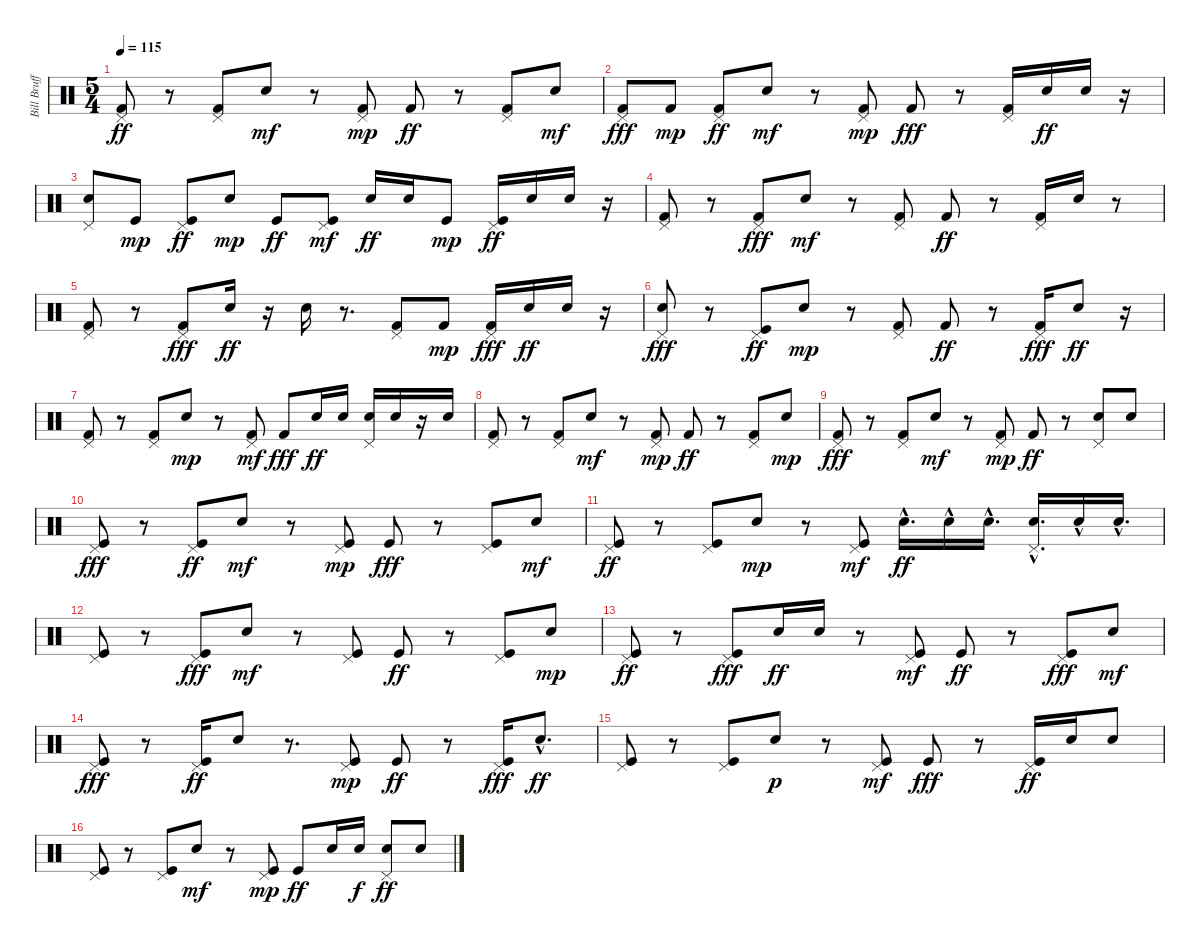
\track ("Bill Brufford Drums" "Bill Bruff") {instrument percussion}
\staff {score}
\articulation defaults
\ts (5 4)
\tempo 115
\clef neutral
\ks c
("Pedal Hi-Hat (hit)" "Kick (hit) 2").8{dy ff} r.8 ("Pedal Hi-Hat (hit)" "Kick (hit) 2").8 "Electric Snare (hit)".8{dy mf} r.8 ("Pedal Hi-Hat (hit)" "Kick (hit) 2").8{dy mp} "Kick (hit) 2".8{dy ff} r.8 ("Pedal Hi-Hat (hit)" "Kick (hit) 2").8 "Electric Snare (hit)".8{dy mf} |
("Pedal Hi-Hat (hit)" "Kick (hit) 2").8{dy fff} "Kick (hit) 2".8{dy mp} ("Pedal Hi-Hat (hit)" "Kick (hit) 2").8{dy ff} "Electric Snare (hit)".8{dy mf} r.8 ("Pedal Hi-Hat (hit)" "Kick (hit) 2").8{dy mp} "Kick (hit) 2".8{dy fff} r.8 ("Pedal Hi-Hat (hit)" "Kick (hit) 2").16 "Electric Snare (hit)".16{dy ff} "Electric Snare (hit)".16 r.16 |
("Pedal Hi-Hat (hit)" "Electric Snare (hit)").8 "Kick (hit)".8{dy mp} ("Pedal Hi-Hat (hit)" "Kick (hit)").8{dy ff} "Electric Snare (hit)".8{dy mp} "Kick (hit)".8{dy ff} ("Pedal Hi-Hat (hit)" "Kick (hit)").8{dy mf} "Electric Snare (hit)".16{dy ff} "Electric Snare (hit)".16 "Kick (hit)".8{dy mp} ("Kick (hit)" "Pedal Hi-Hat (hit)").16{dy ff} "Electric Snare (hit)".16 "Electric Snare (hit)".16 r.16 |
("Kick (hit) 2" "Pedal Hi-Hat (hit)").8 r.8 ("Kick (hit) 2" "Pedal Hi-Hat (hit)").8{dy fff} "Electric Snare (hit)".8{dy mf} r.8 ("Kick (hit) 2" "Pedal Hi-Hat (hit)").8 "Kick (hit) 2".8{dy ff} r.8 ("Kick (hit) 2" "Pedal Hi-Hat (hit)").16 "Electric Snare (hit)".16 r.8 |
("Pedal Hi-Hat (hit)" "Kick (hit) 2").8 r.8 ("Pedal Hi-Hat (hit)" "Kick (hit) 2").8{dy fff} "Electric Snare (hit)".16{dy ff} r.16 "Electric Snare (hit)".16 r.8{d} ("Pedal Hi-Hat (hit)" "Kick (hit) 2").8 "Kick (hit) 2".8{dy mp} ("Pedal Hi-Hat (hit)" "Kick (hit) 2").16{dy fff} "Electric Snare (hit)".16{dy ff} "Electric Snare (hit)".16 r.16 |
("Pedal Hi-Hat (hit)" "Electric Snare (hit)").8{dy fff} r.8 ("Pedal Hi-Hat (hit)" "Kick (hit)").8{dy ff} "Electric Snare (hit)".8{dy mp} r.8 ("Pedal Hi-Hat (hit)" "Kick (hit) 2").8 "Kick (hit) 2".8{dy ff} r.8 ("Pedal Hi-Hat (hit)" "Kick (hit) 2").16{dy fff} "Electric Snare (hit)".8{dy ff} r.16 |
("Pedal Hi-Hat (hit)" "Kick (hit) 2").8 r.8 ("Pedal Hi-Hat (hit)" "Kick (hit) 2").8 "Electric Snare (hit)".8{dy mp} r.8 ("Pedal Hi-Hat (hit)" "Kick (hit) 2").8{dy mf} "Kick (hit) 2".8{dy fff} "Electric Snare (hit)".16{dy ff} "Electric Snare (hit)".16 ("Electric Snare (hit)" "Pedal Hi-Hat (hit)").16 "Electric Snare (hit)".16 r.16 "Electric Snare (hit)".16 |
("Pedal Hi-Hat (hit)" "Kick (hit) 2").8 r.8 ("Pedal Hi-Hat (hit)" "Kick (hit) 2").8 "Electric Snare (hit)".8{dy mf} r.8 ("Pedal Hi-Hat (hit)" "Kick (hit) 2").8{dy mp} "Kick (hit) 2".8{dy ff} r.8 ("Pedal Hi-Hat (hit)" "Kick (hit) 2").8 "Electric Snare (hit)".8{dy mp} |
("Pedal Hi-Hat (hit)" "Kick (hit) 2").8{dy fff} r.8 ("Pedal Hi-Hat (hit)" "Kick (hit) 2").8 "Electric Snare (hit)".8{dy mf} r.8 ("Pedal Hi-Hat (hit)" "Kick (hit) 2").8{dy mp} "Kick (hit) 2".8{dy ff} r.8 ("Pedal Hi-Hat (hit)" "Electric Snare (hit)").8 "Electric Snare (hit)".8 |
("Pedal Hi-Hat (hit)" "Kick (hit)").8{dy fff} r.8 ("Pedal Hi-Hat (hit)" "Kick (hit)").8{dy ff} "Electric Snare (hit)".8{dy mf} r.8 ("Pedal Hi-Hat (hit)" "Kick (hit)").8{dy mp} "Kick (hit)".8{dy fff} r.8 ("Pedal Hi-Hat (hit)" "Kick (hit)").8 "Electric Snare (hit)".8{dy mf} |
("Pedal Hi-Hat (hit)" "Kick (hit)").8{dy ff} r.8 ("Pedal Hi-Hat (hit)" "Kick (hit)").8 "Electric Snare (hit)".8{dy mp} r.8 ("Pedal Hi-Hat (hit)" "Kick (hit)").8{dy mf} "Electric Snare (hit)"{hac}.16{d dy ff} "Electric Snare (hit)"{hac}.16 "Electric Snare (hit)"{hac}.16{d} ("Pedal Hi-Hat (hit)" "Electric Snare (hit)"{hac}).16{d} "Electric Snare (hit)"{hac}.16 "Electric Snare (hit)"{hac}.16{d} |
("Pedal Hi-Hat (hit)" "Kick (hit)").8 r.8 ("Pedal Hi-Hat (hit)" "Kick (hit)").8{dy fff} "Electric Snare (hit)".8{dy mf} r.8 ("Pedal Hi-Hat (hit)" "Kick (hit)").8 "Kick (hit)".8{dy ff} r.8 ("Pedal Hi-Hat (hit)" "Kick (hit)").8 "Electric Snare (hit)".8{dy mp} |
("Pedal Hi-Hat (hit)" "Kick (hit)").8{dy ff} r.8 ("Pedal Hi-Hat (hit)" "Kick (hit)").8{dy fff} "Electric Snare (hit)".16{dy ff} "Electric Snare (hit)".16 r.8 ("Pedal Hi-Hat (hit)" "Kick (hit)").8{dy mf} "Kick (hit)".8{dy ff} r.8 ("Pedal Hi-Hat (hit)" "Kick (hit)").8{dy fff} "Electric Snare (hit)".8{dy mf} |
("Pedal Hi-Hat (hit)" "Kick (hit)").8{dy fff} r.8 ("Pedal Hi-Hat (hit)" "Kick (hit)").16{dy ff} "Electric Snare (hit)".8 r.8{d} ("Pedal Hi-Hat (hit)" "Kick (hit)").8{dy mp} "Kick (hit)".8{dy ff} r.8 ("Pedal Hi-Hat (hit)" "Kick (hit)").16{dy fff} "Electric Snare (hit)"{hac}.8{d dy ff} |
("Pedal Hi-Hat (hit)" "Kick (hit)").8 r.8 ("Pedal Hi-Hat (hit)" "Kick (hit)").8 "Electric Snare (hit)".8{dy p} r.8 ("Pedal Hi-Hat (hit)" "Kick (hit)").8{dy mf} "Kick (hit)".8{dy fff} r.8 ("Pedal Hi-Hat (hit)" "Kick (hit)").16{dy ff} "Snare (hit) 2".16 "Electric Snare (hit)".8 |
("Pedal Hi-Hat (hit)" "Kick (hit)").8 r.8 ("Pedal Hi-Hat (hit)" "Kick (hit)").8 "Electric Snare (hit)".8{dy mf} r.8 ("Pedal Hi-Hat (hit)" "Kick (hit)").8{dy mp} "Kick (hit)".8{dy ff} "Electric Snare (hit)".16 "Electric Snare (hit)".16{dy f} ("Pedal Hi-Hat (hit)" "Electric Snare (hit)").8{dy ff} "Electric Snare (hit)".8
